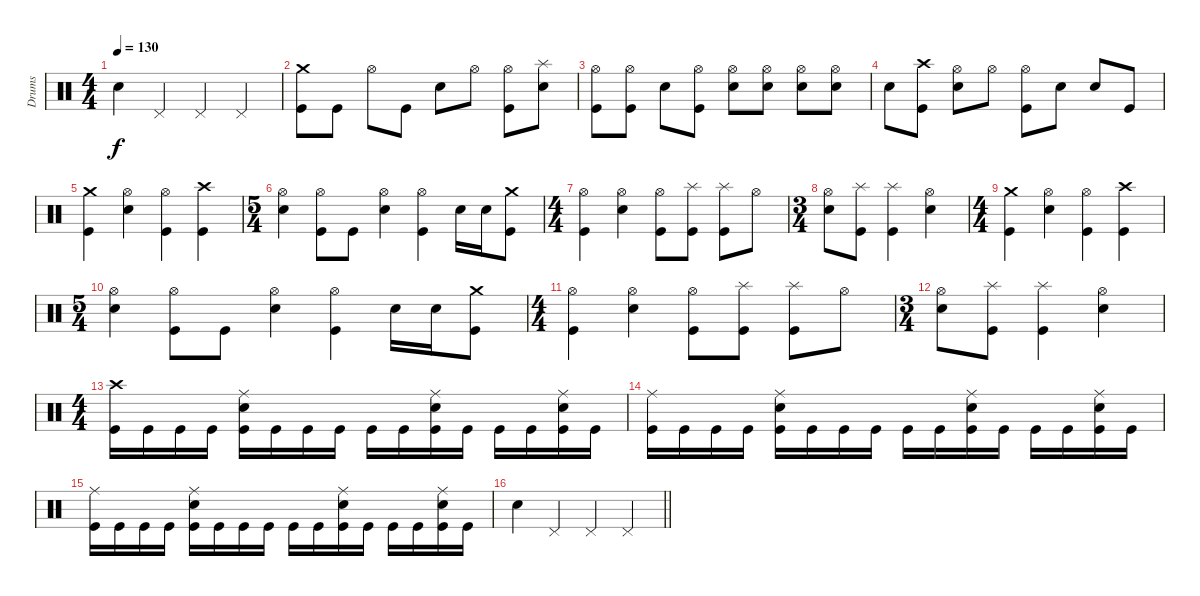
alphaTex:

\track ("Drums" "Drums") {instrument percussion}
\staff {score}
\articulation defaults
\ts (4 4)
\tempo 130
\clef neutral
\ks c "Snare (hit) 2".4{dy f} "Pedal Hi-Hat (hit)".4 "Pedal Hi-Hat (hit)".4 "Pedal Hi-Hat (hit)".4
|
("Crash medium (hit)" "Kick (hit)").8 "Kick (hit)".8 "Hi-Hat (open)".8 "Kick (hit)".8 "Snare (hit) 2".8 "Hi-Hat (open)".8 ("Hi-Hat (open)" "Kick (hit)").8 ("Splash (hit)" "Snare (hit) 2").8 |
("Hi-Hat (open)" "Kick (hit)").8 ("Hi-Hat (open)" "Kick (hit)").8 "Snare (hit) 2".8 ("Hi-Hat (open)" "Kick (hit)").8 ("Hi-Hat (open)" "Snare (hit) 2").8 ("Hi-Hat (open)" "Snare (hit) 2").8 ("Hi-Hat (open)" "Snare (hit) 2").8 ("Hi-Hat (open)" "Snare (hit) 2").8 |
"Snare (hit) 2".8 ("Crash high (hit)" "Kick (hit)").8 ("Hi-Hat (open)" "Snare (hit) 2").8 "Hi-Hat (open)".8 ("Hi-Hat (open)" "Kick (hit)").8 "Snare (hit) 2".8 "Snare (hit) 2".8 "Kick (hit)".8 |
("Crash medium (hit)" "Kick (hit)").4 ("Hi-Hat (open)" "Snare (hit) 2").4 ("Hi-Hat (open)" "Kick (hit)").4 ("Crash high (hit)" "Kick (hit)").4 |
\ts (5 4)
("Hi-Hat (open)" "Snare (hit) 2").4 ("Hi-Hat (open)" "Kick (hit)").8 "Kick (hit)".8 ("Hi-Hat (open)" "Snare (hit) 2").4 ("Hi-Hat (open)" "Kick (hit)").4 "Snare (hit) 2".16 "Snare (hit) 2".16 ("Crash medium (hit)" "Kick (hit)").8 |
\ts (4 4)
("Hi-Hat (open)" "Kick (hit)").4 ("Hi-Hat (open)" "Snare (hit) 2").4 ("Hi-Hat (open)" "Kick (hit)").8 ("Splash (hit)" "Kick (hit)").8 ("Splash (hit)" "Kick (hit)").8 "Hi-Hat (open)".8 |
\ts (3 4)
("Hi-Hat (open)" "Snare (hit) 2").8 ("Splash (hit)" "Kick (hit)").8 ("Splash (hit)" "Kick (hit)").4 ("Hi-Hat (open)" "Snare (hit) 2").4 |
\ts (4 4)
("Crash medium (hit)" "Kick (hit)").4 ("Hi-Hat (open)" "Snare (hit) 2").4 ("Hi-Hat (open)" "Kick (hit)").4 ("Crash high (hit)" "Kick (hit)").4 |
\ts (5 4)
("Hi-Hat (open)" "Snare (hit) 2").4 ("Hi-Hat (open)" "Kick (hit)").8 "Kick (hit)".8 ("Hi-Hat (open)" "Snare (hit) 2").4 ("Hi-Hat (open)" "Kick (hit)").4 "Snare (hit) 2".16 "Snare (hit) 2".16 ("Crash medium (hit)" "Kick (hit)").8 |
\ts (4 4)
("Hi-Hat (open)" "Kick (hit)").4 ("Hi-Hat (open)" "Snare (hit) 2").4 ("Hi-Hat (open)" "Kick (hit)").8 ("Splash (hit)" "Kick (hit)").8 ("Splash (hit)" "Kick (hit)").8 "Hi-Hat (open)".8 |
\ts (3 4)
("Hi-Hat (open)" "Snare (hit) 2").8 ("Splash (hit)" "Kick (hit)").8 ("Splash (hit)" "Kick (hit)").4 ("Hi-Hat (open)" "Snare (hit) 2").4 |
\ts (4 4)
("Crash high (hit)" "Kick (hit)").16 "Kick (hit)".16 "Kick (hit)".16 "Kick (hit)".16 ("Ride (middle)" "Snare (hit) 2" "Kick (hit)").16 "Kick (hit)".16 "Kick (hit)".16 "Kick (hit)".16 "Kick (hit)".16 "Kick (hit)".16 ("Ride (middle)" "Snare (hit) 2" "Kick (hit)").16 "Kick (hit)".16 "Kick (hit)".16 "Kick (hit)".16 ("Ride (middle)" "Snare (hit) 2" "Kick (hit)").16 "Kick (hit)".16 |
("Ride (middle)" "Kick (hit)").16 "Kick (hit)".16 "Kick (hit)".16 "Kick (hit)".16 ("Ride (middle)" "Snare (hit) 2" "Kick (hit)").16 "Kick (hit)".16 "Kick (hit)".16 "Kick (hit)".16 "Kick (hit)".16 "Kick (hit)".16 ("Ride (middle)" "Snare (hit) 2" "Kick (hit)").16 "Kick (hit)".16 "Kick (hit)".16 "Kick (hit)".16 ("Ride (middle)" "Snare (hit) 2" "Kick (hit)").16 "Kick (hit)".16 |
("Ride (middle)" "Kick (hit)").16 "Kick (hit)".16 "Kick (hit)".16 "Kick (hit)".16 ("Ride (middle)" "Snare (hit) 2" "Kick (hit)").16 "Kick (hit)".16 "Kick (hit)".16 "Kick (hit)".16 "Kick (hit)".16 "Kick (hit)".16 ("Ride (middle)" "Snare (hit) 2" "Kick (hit)").16 "Kick (hit)".16 "Kick (hit)".16 "Kick (hit)".16 ("Ride (middle)" "Snare (hit) 2" "Kick (hit)").16 "Kick (hit)".16 |
\barLineRight lightlight "Snare (hit) 2".4 "Pedal Hi-Hat (hit)".4 "Pedal Hi-Hat (hit)".4 "Pedal Hi-Hat (hit)".4
